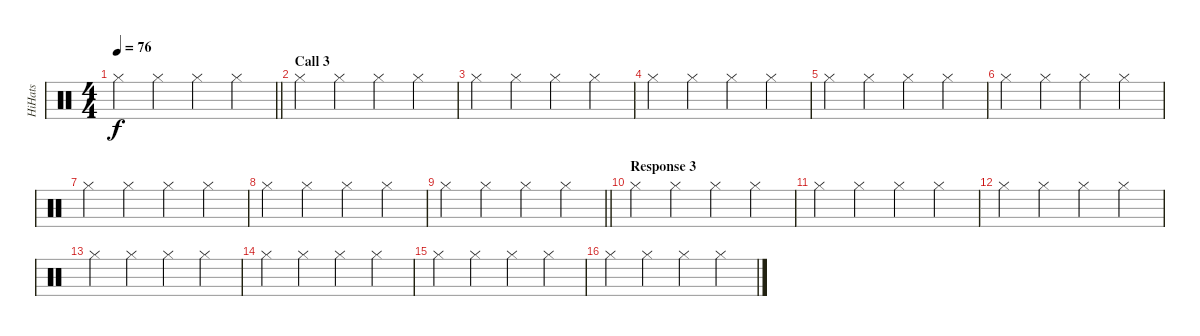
\track ("HiHats" "HiHats") {instrument percussion}
\staff {score}
\articulation defaults
\ts (4 4)
\tempo 76
\clef neutral
\barLineRight lightlight
\ks c "Hi-Hat (closed)".4{dy f} "Hi-Hat (closed)".4 "Hi-Hat (closed)".4 "Hi-Hat (closed)".4
|
\section ("" "Call 3")
"Hi-Hat (closed)".4 "Hi-Hat (closed)".4 "Hi-Hat (closed)".4 "Hi-Hat (closed)".4 |
"Hi-Hat (closed)".4 "Hi-Hat (closed)".4 "Hi-Hat (closed)".4 "Hi-Hat (closed)".4 |
"Hi-Hat (closed)".4 "Hi-Hat (closed)".4 "Hi-Hat (closed)".4 "Hi-Hat (closed)".4 |
"Hi-Hat (closed)".4 "Hi-Hat (closed)".4 "Hi-Hat (closed)".4 "Hi-Hat (closed)".4 |
"Hi-Hat (closed)".4 "Hi-Hat (closed)".4 "Hi-Hat (closed)".4 "Hi-Hat (closed)".4 |
"Hi-Hat (closed)".4 "Hi-Hat (closed)".4 "Hi-Hat (closed)".4 "Hi-Hat (closed)".4 |
"Hi-Hat (closed)".4 "Hi-Hat (closed)".4 "Hi-Hat (closed)".4 "Hi-Hat (closed)".4 |
\barLineRight lightlight "Hi-Hat (closed)".4 "Hi-Hat (closed)".4 "Hi-Hat (closed)".4 "Hi-Hat (closed)".4
|
\section ("" "Response 3")
"Hi-Hat (closed)".4 "Hi-Hat (closed)".4 "Hi-Hat (closed)".4 "Hi-Hat (closed)".4 |
"Hi-Hat (closed)".4 "Hi-Hat (closed)".4 "Hi-Hat (closed)".4 "Hi-Hat (closed)".4 |
"Hi-Hat (closed)".4 "Hi-Hat (closed)".4 "Hi-Hat (closed)".4 "Hi-Hat (closed)".4 |
"Hi-Hat (closed)".4 "Hi-Hat (closed)".4 "Hi-Hat (closed)".4 "Hi-Hat (closed)".4 |
"Hi-Hat (closed)".4 "Hi-Hat (closed)".4 "Hi-Hat (closed)".4 "Hi-Hat (closed)".4 |
"Hi-Hat (closed)".4 "Hi-Hat (closed)".4 "Hi-Hat (closed)".4 "Hi-Hat (closed)".4 |
"Hi-Hat (closed)".4 "Hi-Hat (closed)".4 "Hi-Hat (closed)".4 "Hi-Hat (closed)".4
